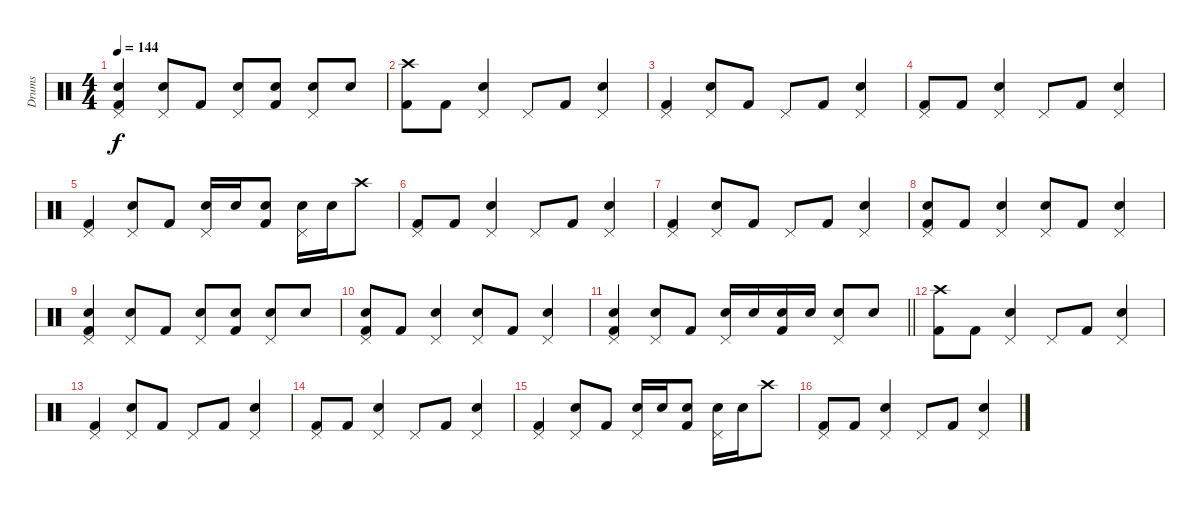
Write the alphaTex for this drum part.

\track ("Drums" "Drums") {instrument percussion}
\staff {score}
\articulation defaults
\ts (4 4)
\tempo 144
\clef neutral
\ks c
("Electric Snare (hit)" "Kick (hit) 2" "Pedal Hi-Hat (hit)").4{dy f} ("Electric Snare (hit)" "Pedal Hi-Hat (hit)").8 "Kick (hit) 2".8 ("Electric Snare (hit)" "Pedal Hi-Hat (hit)").8 ("Electric Snare (hit)" "Kick (hit) 2").8 ("Electric Snare (hit)" "Pedal Hi-Hat (hit)").8 "Electric Snare (hit)".8 |
("Crash high (hit)" "Kick (hit) 2").8 "Kick (hit) 2".8 ("Pedal Hi-Hat (hit)" "Electric Snare (hit)").4 "Pedal Hi-Hat (hit)".8 "Kick (hit) 2".8 ("Pedal Hi-Hat (hit)" "Electric Snare (hit)").4 |
("Kick (hit) 2" "Pedal Hi-Hat (hit)").4 ("Electric Snare (hit)" "Pedal Hi-Hat (hit)").8 "Kick (hit) 2".8 "Pedal Hi-Hat (hit)".8 "Kick (hit) 2".8 ("Electric Snare (hit)" "Pedal Hi-Hat (hit)").4 |
("Pedal Hi-Hat (hit)" "Kick (hit) 2").8 "Kick (hit) 2".8 ("Pedal Hi-Hat (hit)" "Electric Snare (hit)").4 "Pedal Hi-Hat (hit)".8 "Kick (hit) 2".8 ("Pedal Hi-Hat (hit)" "Electric Snare (hit)").4 |
("Kick (hit) 2" "Pedal Hi-Hat (hit)").4 ("Electric Snare (hit)" "Pedal Hi-Hat (hit)").8 "Kick (hit) 2".8 ("Electric Snare (hit)" "Pedal Hi-Hat (hit)").16 "Electric Snare (hit)".16 ("Electric Snare (hit)" "Kick (hit) 2").8 ("Electric Snare (hit)" "Pedal Hi-Hat (hit)").16 "Electric Snare (hit)".16 "Crash high (hit)".8 |
("Pedal Hi-Hat (hit)" "Kick (hit) 2").8 "Kick (hit) 2".8 ("Pedal Hi-Hat (hit)" "Electric Snare (hit)").4 "Pedal Hi-Hat (hit)".8 "Kick (hit) 2".8 ("Pedal Hi-Hat (hit)" "Electric Snare (hit)").4 |
("Kick (hit) 2" "Pedal Hi-Hat (hit)").4 ("Electric Snare (hit)" "Pedal Hi-Hat (hit)").8 "Kick (hit) 2".8 "Pedal Hi-Hat (hit)".8 "Kick (hit) 2".8 ("Electric Snare (hit)" "Pedal Hi-Hat (hit)").4 |
("Electric Snare (hit)" "Pedal Hi-Hat (hit)" "Kick (hit) 2").8 "Kick (hit) 2".8 ("Pedal Hi-Hat (hit)" "Electric Snare (hit)").4 ("Electric Snare (hit)" "Pedal Hi-Hat (hit)").8 "Kick (hit) 2".8 ("Pedal Hi-Hat (hit)" "Electric Snare (hit)").4 |
("Electric Snare (hit)" "Kick (hit) 2" "Pedal Hi-Hat (hit)").4 ("Electric Snare (hit)" "Pedal Hi-Hat (hit)").8 "Kick (hit) 2".8 ("Electric Snare (hit)" "Pedal Hi-Hat (hit)").8 ("Electric Snare (hit)" "Kick (hit) 2").8 ("Electric Snare (hit)" "Pedal Hi-Hat (hit)").8 "Electric Snare (hit)".8 |
("Electric Snare (hit)" "Pedal Hi-Hat (hit)" "Kick (hit) 2").8 "Kick (hit) 2".8 ("Pedal Hi-Hat (hit)" "Electric Snare (hit)").4 ("Electric Snare (hit)" "Pedal Hi-Hat (hit)").8 "Kick (hit) 2".8 ("Pedal Hi-Hat (hit)" "Electric Snare (hit)").4 |
\barLineRight lightlight
("Electric Snare (hit)" "Kick (hit) 2" "Pedal Hi-Hat (hit)").4 ("Electric Snare (hit)" "Pedal Hi-Hat (hit)").8 "Kick (hit) 2".8 ("Electric Snare (hit)" "Pedal Hi-Hat (hit)").16 "Electric Snare (hit)".16 ("Electric Snare (hit)" "Kick (hit) 2").16 "Electric Snare (hit)".16 ("Electric Snare (hit)" "Pedal Hi-Hat (hit)").8 "Electric Snare (hit)".8 |
("Crash high (hit)" "Kick (hit) 2").8 "Kick (hit) 2".8 ("Pedal Hi-Hat (hit)" "Electric Snare (hit)").4 "Pedal Hi-Hat (hit)".8 "Kick (hit) 2".8 ("Pedal Hi-Hat (hit)" "Electric Snare (hit)").4 |
("Kick (hit) 2" "Pedal Hi-Hat (hit)").4 ("Electric Snare (hit)" "Pedal Hi-Hat (hit)").8 "Kick (hit) 2".8 "Pedal Hi-Hat (hit)".8 "Kick (hit) 2".8 ("Electric Snare (hit)" "Pedal Hi-Hat (hit)").4 |
("Pedal Hi-Hat (hit)" "Kick (hit) 2").8 "Kick (hit) 2".8 ("Pedal Hi-Hat (hit)" "Electric Snare (hit)").4 "Pedal Hi-Hat (hit)".8 "Kick (hit) 2".8 ("Pedal Hi-Hat (hit)" "Electric Snare (hit)").4 |
("Kick (hit) 2" "Pedal Hi-Hat (hit)").4 ("Electric Snare (hit)" "Pedal Hi-Hat (hit)").8 "Kick (hit) 2".8 ("Electric Snare (hit)" "Pedal Hi-Hat (hit)").16 "Electric Snare (hit)".16 ("Electric Snare (hit)" "Kick (hit) 2").8 ("Electric Snare (hit)" "Pedal Hi-Hat (hit)").16 "Electric Snare (hit)".16 "Crash high (hit)".8 |
("Pedal Hi-Hat (hit)" "Kick (hit) 2").8 "Kick (hit) 2".8 ("Pedal Hi-Hat (hit)" "Electric Snare (hit)").4 "Pedal Hi-Hat (hit)".8 "Kick (hit) 2".8 ("Pedal Hi-Hat (hit)" "Electric Snare (hit)").4
